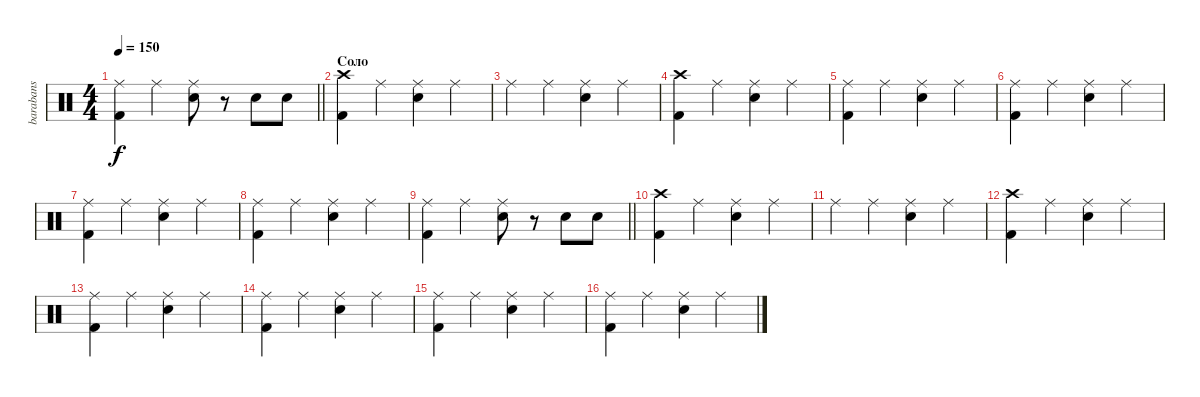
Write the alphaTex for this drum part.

\track ("barabans" "barabans") {instrument percussion}
\staff {score}
\articulation defaults
\ts (4 4)
\tempo 150
\clef neutral
\barLineRight lightlight
\ks c
("Ride (middle)" "Kick (hit) 2").4{dy f} "Ride (middle)".4 ("Ride (middle)" "Snare (hit) 2").8 r.8 "Snare (hit) 2".8 "Snare (hit) 2".8 |
\section ("" "Соло")
("Crash high (hit)" "Kick (hit) 2").4 "Ride (middle)".4 ("Ride (middle)" "Snare (hit) 2").4 "Ride (middle)".4 |
"Ride (middle)".4 "Ride (middle)".4 ("Ride (middle)" "Snare (hit) 2").4 "Ride (middle)".4 |
("Crash high (hit)" "Kick (hit) 2").4 "Ride (middle)".4 ("Ride (middle)" "Snare (hit) 2").4 "Ride (middle)".4 |
("Ride (middle)" "Kick (hit) 2").4 "Ride (middle)".4 ("Ride (middle)" "Snare (hit) 2").4 "Ride (middle)".4 |
("Ride (middle)" "Kick (hit) 2").4 "Ride (middle)".4 ("Ride (middle)" "Snare (hit) 2").4 "Ride (middle)".4 |
("Ride (middle)" "Kick (hit) 2").4 "Ride (middle)".4 ("Ride (middle)" "Snare (hit) 2").4 "Ride (middle)".4 |
("Ride (middle)" "Kick (hit) 2").4 "Ride (middle)".4 ("Ride (middle)" "Snare (hit) 2").4 "Ride (middle)".4 |
\barLineRight lightlight
("Ride (middle)" "Kick (hit) 2").4 "Ride (middle)".4 ("Ride (middle)" "Snare (hit) 2").8 r.8 "Snare (hit) 2".8 "Snare (hit) 2".8 |
("Crash high (hit)" "Kick (hit) 2").4 "Ride (middle)".4 ("Ride (middle)" "Snare (hit) 2").4 "Ride (middle)".4 |
"Ride (middle)".4 "Ride (middle)".4 ("Ride (middle)" "Snare (hit) 2").4 "Ride (middle)".4 |
("Crash high (hit)" "Kick (hit) 2").4 "Ride (middle)".4 ("Ride (middle)" "Snare (hit) 2").4 "Ride (middle)".4 |
("Ride (middle)" "Kick (hit) 2").4 "Ride (middle)".4 ("Ride (middle)" "Snare (hit) 2").4 "Ride (middle)".4 |
("Ride (middle)" "Kick (hit) 2").4 "Ride (middle)".4 ("Ride (middle)" "Snare (hit) 2").4 "Ride (middle)".4 |
("Ride (middle)" "Kick (hit) 2").4 "Ride (middle)".4 ("Ride (middle)" "Snare (hit) 2").4 "Ride (middle)".4 |
("Ride (middle)" "Kick (hit) 2").4 "Ride (middle)".4 ("Ride (middle)" "Snare (hit) 2").4 "Ride (middle)".4
